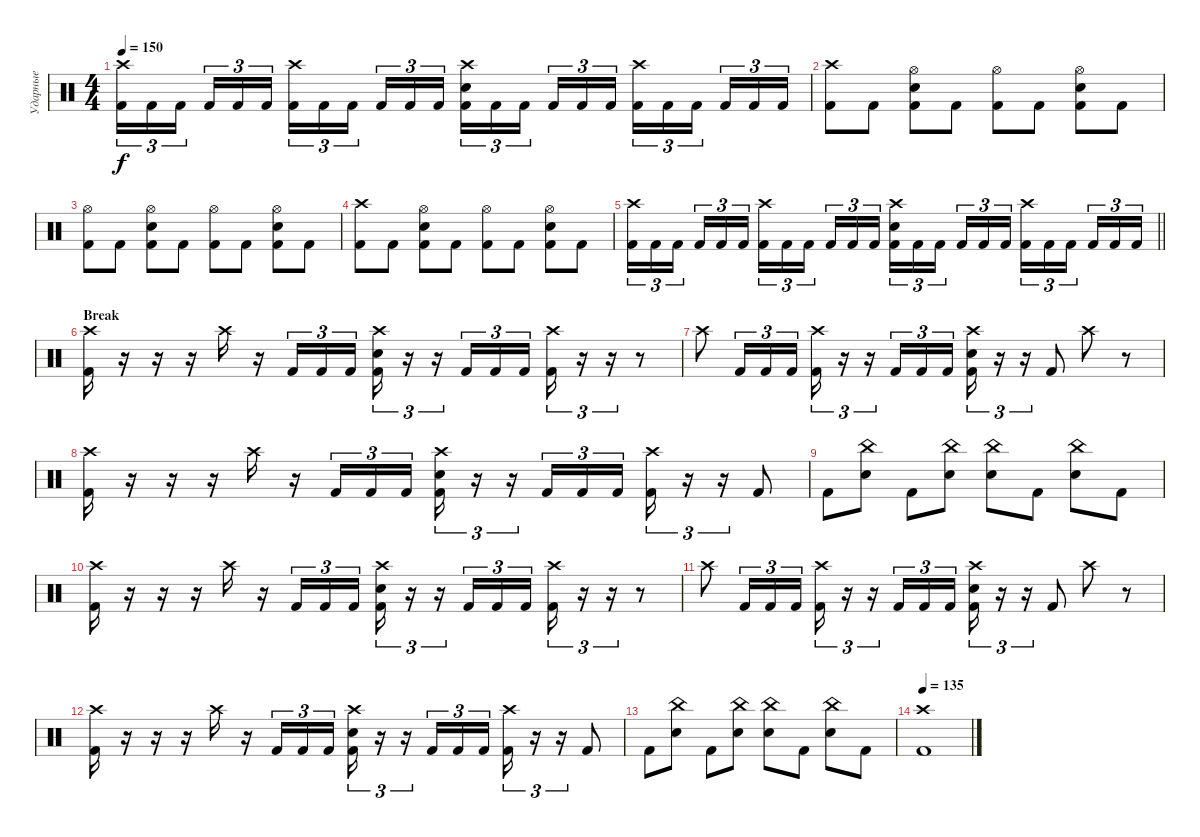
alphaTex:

\track ("Ударные" "Ударные") {instrument percussion}
\staff {score}
\articulation defaults
\ts (4 4)
\tempo 150
\clef neutral
\ks c
("Crash high (hit)" "Kick (hit) 2").16{tu (3 2) dy f} "Kick (hit) 2".16{tu (3 2)} "Kick (hit) 2".16{tu (3 2) beam splitsecondary} "Kick (hit) 2".16{tu (3 2)} "Kick (hit) 2".16{tu (3 2)} "Kick (hit) 2".16{tu (3 2)} ("Crash high (hit)" "Kick (hit) 2").16{tu (3 2)} "Kick (hit) 2".16{tu (3 2)} "Kick (hit) 2".16{tu (3 2) beam splitsecondary} "Kick (hit) 2".16{tu (3 2)} "Kick (hit) 2".16{tu (3 2)} "Kick (hit) 2".16{tu (3 2)} ("Crash high (hit)" "Electric Snare (hit)" "Kick (hit) 2").16{tu (3 2)} "Kick (hit) 2".16{tu (3 2)} "Kick (hit) 2".16{tu (3 2) beam splitsecondary} "Kick (hit) 2".16{tu (3 2)} "Kick (hit) 2".16{tu (3 2)} "Kick (hit) 2".16{tu (3 2)} ("Crash high (hit)" "Kick (hit) 2").16{tu (3 2)} "Kick (hit) 2".16{tu (3 2)} "Kick (hit) 2".16{tu (3 2) beam splitsecondary} "Kick (hit) 2".16{tu (3 2)} "Kick (hit) 2".16{tu (3 2)} "Kick (hit) 2".16{tu (3 2)} |
("Crash high (hit)" "Kick (hit) 2").8 "Kick (hit) 2".8 ("Hi-Hat (open)" "Electric Snare (hit)" "Kick (hit) 2").8 "Kick (hit) 2".8 ("Hi-Hat (open)" "Kick (hit) 2").8 "Kick (hit) 2".8 ("Hi-Hat (open)" "Electric Snare (hit)" "Kick (hit) 2").8 "Kick (hit) 2".8 |
("Hi-Hat (open)" "Kick (hit) 2").8 "Kick (hit) 2".8 ("Hi-Hat (open)" "Electric Snare (hit)" "Kick (hit) 2").8 "Kick (hit) 2".8 ("Hi-Hat (open)" "Kick (hit) 2").8 "Kick (hit) 2".8 ("Hi-Hat (open)" "Electric Snare (hit)" "Kick (hit) 2").8 "Kick (hit) 2".8 |
("Crash high (hit)" "Kick (hit) 2").8 "Kick (hit) 2".8 ("Hi-Hat (open)" "Electric Snare (hit)" "Kick (hit) 2").8 "Kick (hit) 2".8 ("Hi-Hat (open)" "Kick (hit) 2").8 "Kick (hit) 2".8 ("Hi-Hat (open)" "Electric Snare (hit)" "Kick (hit) 2").8 "Kick (hit) 2".8 |
\barLineRight lightlight
("Crash high (hit)" "Kick (hit) 2").16{tu (3 2)} "Kick (hit) 2".16{tu (3 2)} "Kick (hit) 2".16{tu (3 2) beam splitsecondary} "Kick (hit) 2".16{tu (3 2)} "Kick (hit) 2".16{tu (3 2)} "Kick (hit) 2".16{tu (3 2)} ("Crash high (hit)" "Kick (hit) 2").16{tu (3 2)} "Kick (hit) 2".16{tu (3 2)} "Kick (hit) 2".16{tu (3 2) beam splitsecondary} "Kick (hit) 2".16{tu (3 2)} "Kick (hit) 2".16{tu (3 2)} "Kick (hit) 2".16{tu (3 2)} ("Crash high (hit)" "Electric Snare (hit)" "Kick (hit) 2").16{tu (3 2)} "Kick (hit) 2".16{tu (3 2)} "Kick (hit) 2".16{tu (3 2) beam splitsecondary} "Kick (hit) 2".16{tu (3 2)} "Kick (hit) 2".16{tu (3 2)} "Kick (hit) 2".16{tu (3 2)} ("Crash high (hit)" "Kick (hit) 2").16{tu (3 2)} "Kick (hit) 2".16{tu (3 2)} "Kick (hit) 2".16{tu (3 2) beam splitsecondary} "Kick (hit) 2".16{tu (3 2)} "Kick (hit) 2".16{tu (3 2)} "Kick (hit) 2".16{tu (3 2)} |
\section ("" "Break")
("Crash high (hit)" "Kick (hit) 2").16 r.16 r.16 r.16 "Crash high (hit)".16 r.16 "Kick (hit) 2".16{tu (3 2)} "Kick (hit) 2".16{tu (3 2)} "Kick (hit) 2".16{tu (3 2)} ("Crash high (hit)" "Electric Snare (hit)" "Kick (hit) 2").16{tu (3 2)} r.16{tu (3 2)} r.16{tu (3 2)} "Kick (hit) 2".16{tu (3 2)} "Kick (hit) 2".16{tu (3 2)} "Kick (hit) 2".16{tu (3 2)} ("Crash high (hit)" "Kick (hit) 2").16{tu (3 2)} r.16{tu (3 2)} r.16{tu (3 2)} r.8 |
"Crash high (hit)".8 "Kick (hit) 2".16{tu (3 2)} "Kick (hit) 2".16{tu (3 2)} "Kick (hit) 2".16{tu (3 2)} ("Crash high (hit)" "Kick (hit) 2").16{tu (3 2)} r.16{tu (3 2)} r.16{tu (3 2)} "Kick (hit) 2".16{tu (3 2)} "Kick (hit) 2".16{tu (3 2)} "Kick (hit) 2".16{tu (3 2)} ("Crash high (hit)" "Electric Snare (hit)" "Kick (hit) 2").16{tu (3 2)} r.16{tu (3 2)} r.16{tu (3 2)} "Kick (hit) 2".8 "Crash high (hit)".8 r.8 |
("Crash high (hit)" "Kick (hit) 2").16 r.16 r.16 r.16 "Crash high (hit)".16 r.16 "Kick (hit) 2".16{tu (3 2)} "Kick (hit) 2".16{tu (3 2)} "Kick (hit) 2".16{tu (3 2)} ("Crash high (hit)" "Electric Snare (hit)" "Kick (hit) 2").16{tu (3 2)} r.16{tu (3 2)} r.16{tu (3 2)} "Kick (hit) 2".16{tu (3 2)} "Kick (hit) 2".16{tu (3 2)} "Kick (hit) 2".16{tu (3 2)} ("Crash high (hit)" "Kick (hit) 2").16{tu (3 2)} r.16{tu (3 2)} r.16{tu (3 2)} "Kick (hit) 2".8 |
"Kick (hit) 2".8 ("China (hit)" "Electric Snare (hit)").8 "Kick (hit) 2".8 ("China (hit)" "Electric Snare (hit)").8 ("China (hit)" "Electric Snare (hit)").8 "Kick (hit) 2".8 ("China (hit)" "Electric Snare (hit)").8 "Kick (hit) 2".8 |
("Crash high (hit)" "Kick (hit) 2").16 r.16 r.16 r.16 "Crash high (hit)".16 r.16 "Kick (hit) 2".16{tu (3 2)} "Kick (hit) 2".16{tu (3 2)} "Kick (hit) 2".16{tu (3 2)} ("Crash high (hit)" "Electric Snare (hit)" "Kick (hit) 2").16{tu (3 2)} r.16{tu (3 2)} r.16{tu (3 2)} "Kick (hit) 2".16{tu (3 2)} "Kick (hit) 2".16{tu (3 2)} "Kick (hit) 2".16{tu (3 2)} ("Crash high (hit)" "Kick (hit) 2").16{tu (3 2)} r.16{tu (3 2)} r.16{tu (3 2)} r.8 |
"Crash high (hit)".8 "Kick (hit) 2".16{tu (3 2)} "Kick (hit) 2".16{tu (3 2)} "Kick (hit) 2".16{tu (3 2)} ("Crash high (hit)" "Kick (hit) 2").16{tu (3 2)} r.16{tu (3 2)} r.16{tu (3 2)} "Kick (hit) 2".16{tu (3 2)} "Kick (hit) 2".16{tu (3 2)} "Kick (hit) 2".16{tu (3 2)} ("Crash high (hit)" "Electric Snare (hit)" "Kick (hit) 2").16{tu (3 2)} r.16{tu (3 2)} r.16{tu (3 2)} "Kick (hit) 2".8 "Crash high (hit)".8 r.8 |
("Crash high (hit)" "Kick (hit) 2").16 r.16 r.16 r.16 "Crash high (hit)".16 r.16 "Kick (hit) 2".16{tu (3 2)} "Kick (hit) 2".16{tu (3 2)} "Kick (hit) 2".16{tu (3 2)} ("Crash high (hit)" "Electric Snare (hit)" "Kick (hit) 2").16{tu (3 2)} r.16{tu (3 2)} r.16{tu (3 2)} "Kick (hit) 2".16{tu (3 2)} "Kick (hit) 2".16{tu (3 2)} "Kick (hit) 2".16{tu (3 2)} ("Crash high (hit)" "Kick (hit) 2").16{tu (3 2)} r.16{tu (3 2)} r.16{tu (3 2)} "Kick (hit) 2".8 |
"Kick (hit) 2".8 ("China (hit)" "Electric Snare (hit)").8 "Kick (hit) 2".8 ("China (hit)" "Electric Snare (hit)").8 ("China (hit)" "Electric Snare (hit)").8 "Kick (hit) 2".8 ("China (hit)" "Electric Snare (hit)").8 "Kick (hit) 2".8 |
\tempo 135
("Crash high (hit)" "Kick (hit) 2").1
